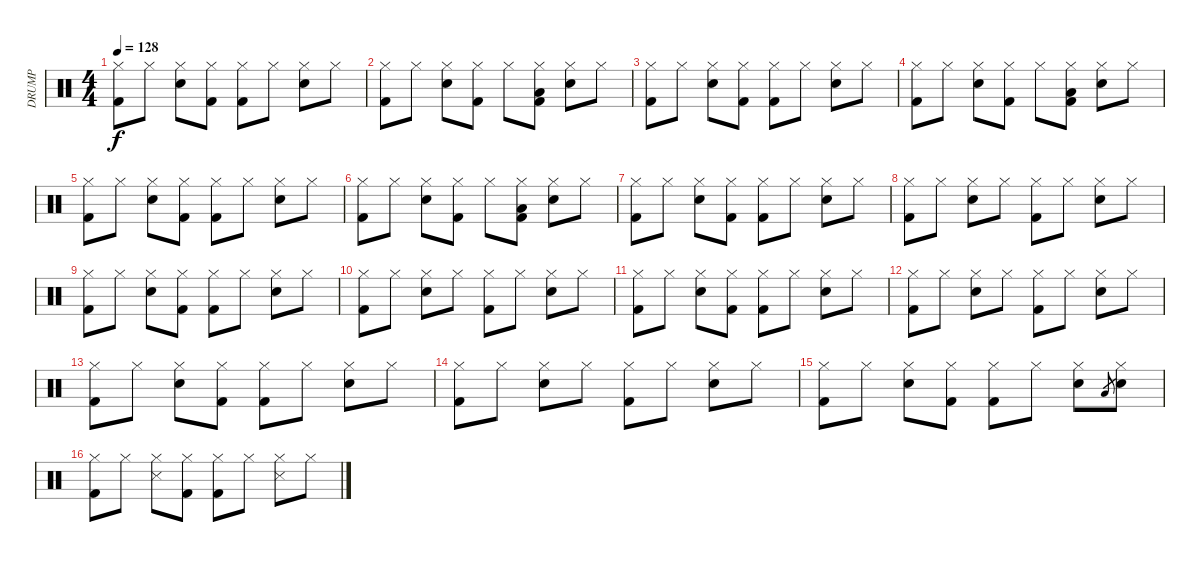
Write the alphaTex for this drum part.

\track ("DRUMP" "DRUMP") {instrument percussion}
\staff {score}
\articulation defaults
\ts (4 4)
\tempo 128
\clef neutral
\ks c
("Hi-Hat (closed)" "Kick (hit) 2").8{dy f} "Hi-Hat (closed)".8 ("Hi-Hat (closed)" "Snare (hit) 2").8 ("Hi-Hat (closed)" "Kick (hit) 2").8 ("Hi-Hat (closed)" "Kick (hit) 2").8 "Hi-Hat (closed)".8 ("Hi-Hat (closed)" "Snare (hit) 2").8 "Hi-Hat (closed)".8 |
("Hi-Hat (closed)" "Kick (hit) 2").8 "Hi-Hat (closed)".8 ("Hi-Hat (closed)" "Snare (hit) 2").8 ("Hi-Hat (closed)" "Kick (hit) 2").8 "Hi-Hat (closed)".8 ("Hi-Hat (closed)" "Low Floor Tom (hit)" "Kick (hit) 2").8 ("Hi-Hat (closed)" "Snare (hit) 2").8 "Hi-Hat (closed)".8 |
("Hi-Hat (closed)" "Kick (hit) 2").8 "Hi-Hat (closed)".8 ("Hi-Hat (closed)" "Snare (hit) 2").8 ("Hi-Hat (closed)" "Kick (hit) 2").8 ("Hi-Hat (closed)" "Kick (hit) 2").8 "Hi-Hat (closed)".8 ("Hi-Hat (closed)" "Snare (hit) 2").8 "Hi-Hat (closed)".8 |
("Hi-Hat (closed)" "Kick (hit) 2").8 "Hi-Hat (closed)".8 ("Hi-Hat (closed)" "Snare (hit) 2").8 ("Hi-Hat (closed)" "Kick (hit) 2").8 "Hi-Hat (closed)".8 ("Hi-Hat (closed)" "Low Floor Tom (hit)" "Kick (hit) 2").8 ("Hi-Hat (closed)" "Snare (hit) 2").8 "Hi-Hat (closed)".8 |
("Hi-Hat (closed)" "Kick (hit) 2").8 "Hi-Hat (closed)".8 ("Hi-Hat (closed)" "Snare (hit) 2").8 ("Hi-Hat (closed)" "Kick (hit) 2").8 ("Hi-Hat (closed)" "Kick (hit) 2").8 "Hi-Hat (closed)".8 ("Hi-Hat (closed)" "Snare (hit) 2").8 "Hi-Hat (closed)".8 |
("Hi-Hat (closed)" "Kick (hit) 2").8 "Hi-Hat (closed)".8 ("Hi-Hat (closed)" "Snare (hit) 2").8 ("Hi-Hat (closed)" "Kick (hit) 2").8 "Hi-Hat (closed)".8 ("Hi-Hat (closed)" "Low Floor Tom (hit)" "Kick (hit) 2").8 ("Hi-Hat (closed)" "Snare (hit) 2").8 "Hi-Hat (closed)".8 |
("Hi-Hat (closed)" "Kick (hit) 2").8 "Hi-Hat (closed)".8 ("Hi-Hat (closed)" "Snare (hit) 2").8 ("Hi-Hat (closed)" "Kick (hit) 2").8 ("Hi-Hat (closed)" "Kick (hit) 2").8 "Hi-Hat (closed)".8 ("Hi-Hat (closed)" "Snare (hit) 2").8 "Hi-Hat (closed)".8 |
("Hi-Hat (closed)" "Kick (hit) 2").8 "Hi-Hat (closed)".8 ("Hi-Hat (closed)" "Snare (hit) 2").8 "Hi-Hat (closed)".8 ("Hi-Hat (closed)" "Kick (hit) 2").8 "Hi-Hat (closed)".8 ("Hi-Hat (closed)" "Snare (hit) 2").8 "Hi-Hat (closed)".8 |
("Hi-Hat (closed)" "Kick (hit) 2").8 "Hi-Hat (closed)".8 ("Hi-Hat (closed)" "Snare (hit) 2").8 ("Hi-Hat (closed)" "Kick (hit) 2").8 ("Hi-Hat (closed)" "Kick (hit) 2").8 "Hi-Hat (closed)".8 ("Hi-Hat (closed)" "Snare (hit) 2").8 "Hi-Hat (closed)".8 |
("Hi-Hat (closed)" "Kick (hit) 2").8 "Hi-Hat (closed)".8 ("Hi-Hat (closed)" "Snare (hit) 2").8 "Hi-Hat (closed)".8 ("Hi-Hat (closed)" "Kick (hit) 2").8 "Hi-Hat (closed)".8 ("Hi-Hat (closed)" "Snare (hit) 2").8 "Hi-Hat (closed)".8 |
("Hi-Hat (closed)" "Kick (hit) 2").8 "Hi-Hat (closed)".8 ("Hi-Hat (closed)" "Snare (hit) 2").8 ("Hi-Hat (closed)" "Kick (hit) 2").8 ("Hi-Hat (closed)" "Kick (hit) 2").8 "Hi-Hat (closed)".8 ("Hi-Hat (closed)" "Snare (hit) 2").8 "Hi-Hat (closed)".8 |
("Hi-Hat (closed)" "Kick (hit) 2").8 "Hi-Hat (closed)".8 ("Hi-Hat (closed)" "Snare (hit) 2").8 "Hi-Hat (closed)".8 ("Hi-Hat (closed)" "Kick (hit) 2").8 "Hi-Hat (closed)".8 ("Hi-Hat (closed)" "Snare (hit) 2").8 "Hi-Hat (closed)".8 |
("Hi-Hat (closed)" "Kick (hit) 2").8 "Hi-Hat (closed)".8 ("Hi-Hat (closed)" "Snare (hit) 2").8 ("Hi-Hat (closed)" "Kick (hit) 2").8 ("Hi-Hat (closed)" "Kick (hit) 2").8 "Hi-Hat (closed)".8 ("Hi-Hat (closed)" "Snare (hit) 2").8 "Hi-Hat (closed)".8 |
("Hi-Hat (closed)" "Kick (hit) 2").8 "Hi-Hat (closed)".8 ("Hi-Hat (closed)" "Snare (hit) 2").8 "Hi-Hat (closed)".8 ("Hi-Hat (closed)" "Kick (hit) 2").8 "Hi-Hat (closed)".8 ("Hi-Hat (closed)" "Snare (hit) 2").8 "Hi-Hat (closed)".8 |
("Hi-Hat (closed)" "Kick (hit) 2").8 "Hi-Hat (closed)".8 ("Hi-Hat (closed)" "Snare (hit) 2").8 ("Hi-Hat (closed)" "Kick (hit) 2").8 ("Hi-Hat (closed)" "Kick (hit) 2").8 "Hi-Hat (closed)".8 ("Hi-Hat (closed)" "Snare (hit) 2").8 "Low Floor Tom (hit)".8{gr} ("Hi-Hat (closed)" "Snare (hit) 2").8 |
("Hi-Hat (closed)" "Kick (hit) 2").8 "Hi-Hat (closed)".8 ("Hi-Hat (closed)" "Snare (side stick) 3").8 ("Hi-Hat (closed)" "Kick (hit) 2").8 ("Hi-Hat (closed)" "Kick (hit) 2").8 "Hi-Hat (closed)".8 ("Hi-Hat (closed)" "Snare (side stick) 3").8 "Hi-Hat (closed)".8
